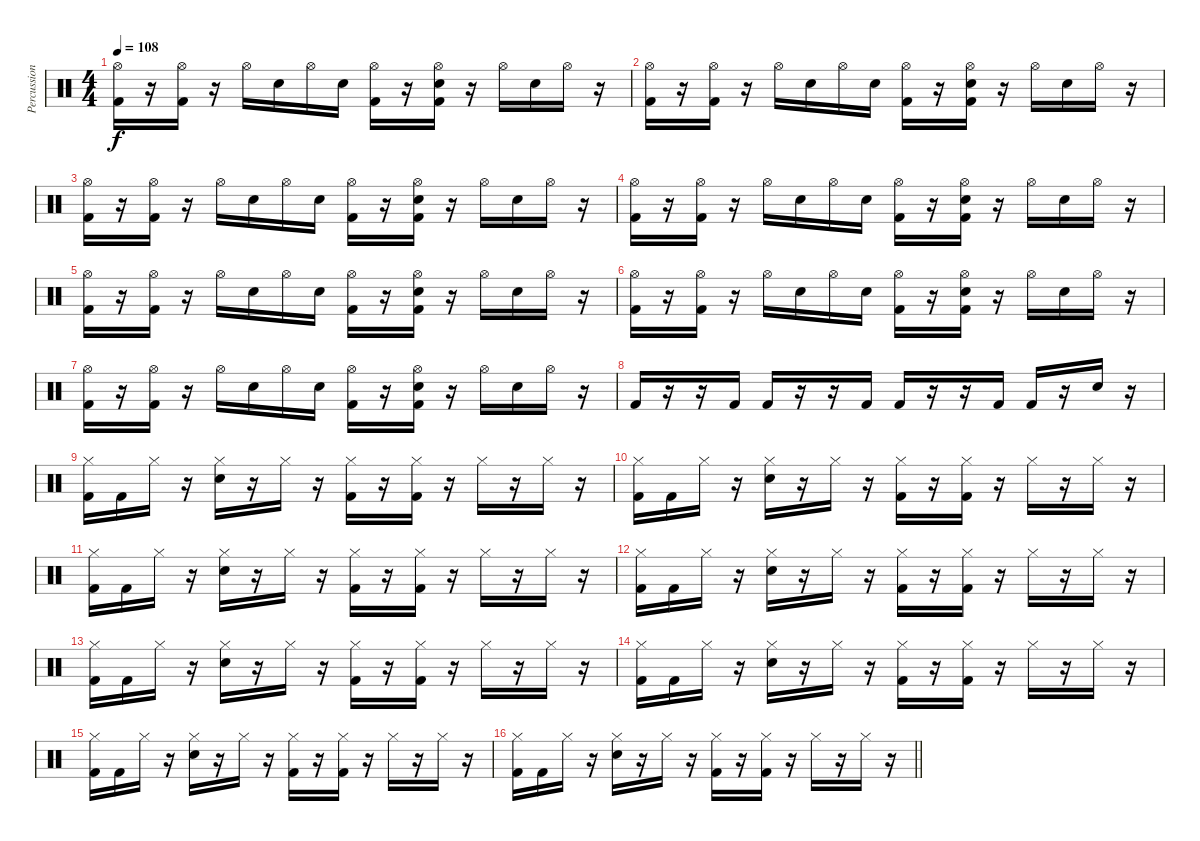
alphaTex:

\track ("Percussion" "Percussion") {instrument percussion}
\staff {score}
\articulation defaults
\ts (4 4)
\tempo 108
\clef neutral
\ks c
("Hi-Hat (open)" "Kick (hit) 2").16{dy f} r.16 ("Hi-Hat (open)" "Kick (hit) 2").16 r.16 "Hi-Hat (open)".16 "Snare (hit) 2".16 "Hi-Hat (open)".16 "Snare (hit) 2".16 ("Hi-Hat (open)" "Kick (hit) 2").16 r.16 ("Hi-Hat (open)" "Snare (hit) 2" "Kick (hit) 2").16 r.16 "Hi-Hat (open)".16 "Snare (hit) 2".16 "Hi-Hat (open)".16 r.16 |
("Hi-Hat (open)" "Kick (hit) 2").16 r.16 ("Hi-Hat (open)" "Kick (hit) 2").16 r.16 "Hi-Hat (open)".16 "Snare (hit) 2".16 "Hi-Hat (open)".16 "Snare (hit) 2".16 ("Hi-Hat (open)" "Kick (hit) 2").16 r.16 ("Hi-Hat (open)" "Snare (hit) 2" "Kick (hit) 2").16 r.16 "Hi-Hat (open)".16 "Snare (hit) 2".16 "Hi-Hat (open)".16 r.16 |
("Hi-Hat (open)" "Kick (hit) 2").16 r.16 ("Hi-Hat (open)" "Kick (hit) 2").16 r.16 "Hi-Hat (open)".16 "Snare (hit) 2".16 "Hi-Hat (open)".16 "Snare (hit) 2".16 ("Hi-Hat (open)" "Kick (hit) 2").16 r.16 ("Hi-Hat (open)" "Snare (hit) 2" "Kick (hit) 2").16 r.16 "Hi-Hat (open)".16 "Snare (hit) 2".16 "Hi-Hat (open)".16 r.16 |
("Hi-Hat (open)" "Kick (hit) 2").16 r.16 ("Hi-Hat (open)" "Kick (hit) 2").16 r.16 "Hi-Hat (open)".16 "Snare (hit) 2".16 "Hi-Hat (open)".16 "Snare (hit) 2".16 ("Hi-Hat (open)" "Kick (hit) 2").16 r.16 ("Hi-Hat (open)" "Snare (hit) 2" "Kick (hit) 2").16 r.16 "Hi-Hat (open)".16 "Snare (hit) 2".16 "Hi-Hat (open)".16 r.16 |
("Hi-Hat (open)" "Kick (hit) 2").16 r.16 ("Hi-Hat (open)" "Kick (hit) 2").16 r.16 "Hi-Hat (open)".16 "Snare (hit) 2".16 "Hi-Hat (open)".16 "Snare (hit) 2".16 ("Hi-Hat (open)" "Kick (hit) 2").16 r.16 ("Hi-Hat (open)" "Snare (hit) 2" "Kick (hit) 2").16 r.16 "Hi-Hat (open)".16 "Snare (hit) 2".16 "Hi-Hat (open)".16 r.16 |
("Hi-Hat (open)" "Kick (hit) 2").16 r.16 ("Hi-Hat (open)" "Kick (hit) 2").16 r.16 "Hi-Hat (open)".16 "Snare (hit) 2".16 "Hi-Hat (open)".16 "Snare (hit) 2".16 ("Hi-Hat (open)" "Kick (hit) 2").16 r.16 ("Hi-Hat (open)" "Snare (hit) 2" "Kick (hit) 2").16 r.16 "Hi-Hat (open)".16 "Snare (hit) 2".16 "Hi-Hat (open)".16 r.16 |
("Hi-Hat (open)" "Kick (hit) 2").16 r.16 ("Hi-Hat (open)" "Kick (hit) 2").16 r.16 "Hi-Hat (open)".16 "Snare (hit) 2".16 "Hi-Hat (open)".16 "Snare (hit) 2".16 ("Hi-Hat (open)" "Kick (hit) 2").16 r.16 ("Hi-Hat (open)" "Snare (hit) 2" "Kick (hit) 2").16 r.16 "Hi-Hat (open)".16 "Snare (hit) 2".16 "Hi-Hat (open)".16 r.16 |
"Kick (hit) 2".16 r.16 r.16 "Kick (hit) 2".16 "Kick (hit) 2".16 r.16 r.16 "Kick (hit) 2".16 "Kick (hit) 2".16 r.16 r.16 "Kick (hit) 2".16 "Kick (hit) 2".16 r.16 "Snare (hit) 2".16 r.16 |
("Hi-Hat (closed)" "Kick (hit) 2").16 "Kick (hit) 2".16 "Hi-Hat (closed)".16 r.16 ("Hi-Hat (closed)" "Snare (hit) 2").16 r.16 "Hi-Hat (closed)".16 r.16 ("Hi-Hat (closed)" "Kick (hit) 2").16 r.16 ("Hi-Hat (closed)" "Kick (hit) 2").16 r.16 "Hi-Hat (closed)".16 r.16 "Hi-Hat (closed)".16 r.16 |
("Hi-Hat (closed)" "Kick (hit) 2").16 "Kick (hit) 2".16 "Hi-Hat (closed)".16 r.16 ("Hi-Hat (closed)" "Snare (hit) 2").16 r.16 "Hi-Hat (closed)".16 r.16 ("Hi-Hat (closed)" "Kick (hit) 2").16 r.16 ("Hi-Hat (closed)" "Kick (hit) 2").16 r.16 "Hi-Hat (closed)".16 r.16 "Hi-Hat (closed)".16 r.16 |
("Hi-Hat (closed)" "Kick (hit) 2").16 "Kick (hit) 2".16 "Hi-Hat (closed)".16 r.16 ("Hi-Hat (closed)" "Snare (hit) 2").16 r.16 "Hi-Hat (closed)".16 r.16 ("Hi-Hat (closed)" "Kick (hit) 2").16 r.16 ("Hi-Hat (closed)" "Kick (hit) 2").16 r.16 "Hi-Hat (closed)".16 r.16 "Hi-Hat (closed)".16 r.16 |
("Hi-Hat (closed)" "Kick (hit) 2").16 "Kick (hit) 2".16 "Hi-Hat (closed)".16 r.16 ("Hi-Hat (closed)" "Snare (hit) 2").16 r.16 "Hi-Hat (closed)".16 r.16 ("Hi-Hat (closed)" "Kick (hit) 2").16 r.16 ("Hi-Hat (closed)" "Kick (hit) 2").16 r.16 "Hi-Hat (closed)".16 r.16 "Hi-Hat (closed)".16 r.16 |
("Hi-Hat (closed)" "Kick (hit) 2").16 "Kick (hit) 2".16 "Hi-Hat (closed)".16 r.16 ("Hi-Hat (closed)" "Snare (hit) 2").16 r.16 "Hi-Hat (closed)".16 r.16 ("Hi-Hat (closed)" "Kick (hit) 2").16 r.16 ("Hi-Hat (closed)" "Kick (hit) 2").16 r.16 "Hi-Hat (closed)".16 r.16 "Hi-Hat (closed)".16 r.16 |
("Hi-Hat (closed)" "Kick (hit) 2").16 "Kick (hit) 2".16 "Hi-Hat (closed)".16 r.16 ("Hi-Hat (closed)" "Snare (hit) 2").16 r.16 "Hi-Hat (closed)".16 r.16 ("Hi-Hat (closed)" "Kick (hit) 2").16 r.16 ("Hi-Hat (closed)" "Kick (hit) 2").16 r.16 "Hi-Hat (closed)".16 r.16 "Hi-Hat (closed)".16 r.16 |
("Hi-Hat (closed)" "Kick (hit) 2").16 "Kick (hit) 2".16 "Hi-Hat (closed)".16 r.16 ("Hi-Hat (closed)" "Snare (hit) 2").16 r.16 "Hi-Hat (closed)".16 r.16 ("Hi-Hat (closed)" "Kick (hit) 2").16 r.16 ("Hi-Hat (closed)" "Kick (hit) 2").16 r.16 "Hi-Hat (closed)".16 r.16 "Hi-Hat (closed)".16 r.16 |
\barLineRight lightlight
("Hi-Hat (closed)" "Kick (hit) 2").16 "Kick (hit) 2".16 "Hi-Hat (closed)".16 r.16 ("Hi-Hat (closed)" "Snare (hit) 2").16 r.16 "Hi-Hat (closed)".16 r.16 ("Hi-Hat (closed)" "Kick (hit) 2").16 r.16 ("Hi-Hat (closed)" "Kick (hit) 2").16 r.16 "Hi-Hat (closed)".16 r.16 "Hi-Hat (closed)".16 r.16
